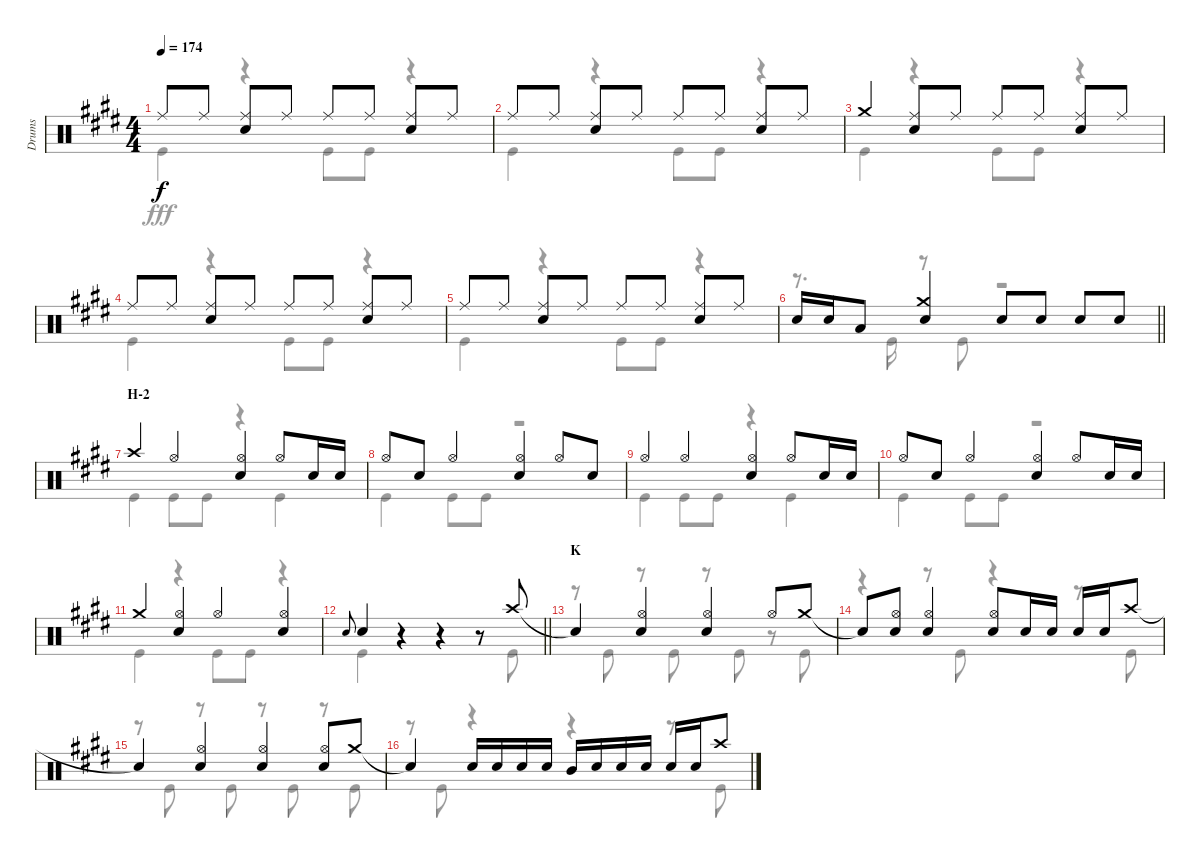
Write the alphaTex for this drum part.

\track ("Drums" "Drums") {instrument percussion}
\staff {score}
\articulation defaults
\voice
\ts (4 4)
\tempo 174
\clef neutral
\ks e "Ride (middle)".8{dy f} "Ride (middle)".8
("Ride (middle)" "Snare (hit) 2").8 "Ride (middle)".8 "Ride (middle)".8 "Ride (middle)".8 ("Ride (middle)" "Snare (hit) 2").8 "Ride (middle)".8 |
"Ride (middle)".8 "Ride (middle)".8 ("Ride (middle)" "Snare (hit) 2").8 "Ride (middle)".8 "Ride (middle)".8 "Ride (middle)".8 ("Ride (middle)" "Snare (hit) 2").8 "Ride (middle)".8 |
"Crash medium (hit)".4 ("Ride (middle)" "Snare (hit) 2").8 "Ride (middle)".8 "Ride (middle)".8 "Ride (middle)".8 ("Ride (middle)" "Snare (hit) 2").8 "Ride (middle)".8 |
"Ride (middle)".8 "Ride (middle)".8 ("Ride (middle)" "Snare (hit) 2").8 "Ride (middle)".8 "Ride (middle)".8 "Ride (middle)".8 ("Ride (middle)" "Snare (hit) 2").8 "Ride (middle)".8 |
"Ride (middle)".8 "Ride (middle)".8 ("Ride (middle)" "Snare (hit) 2").8 "Ride (middle)".8 "Ride (middle)".8 "Ride (middle)".8 ("Ride (middle)" "Snare (hit) 2").8 "Ride (middle)".8 |
\barLineRight lightlight "Snare (hit) 2".16 "Snare (hit) 2".16 "Low Tom (hit)".8
("Crash medium (hit)" "Snare (hit) 2").4 "Snare (hit) 2".8 "Snare (hit) 2".8 "Snare (hit) 2".8 "Snare (hit) 2".8 |
\section ("" "H-2")
"Crash high (hit)".4 "Hi-Hat (open)".4 ("Hi-Hat (open)" "Snare (hit) 2").4 "Hi-Hat (open)".8 "Snare (hit) 2".16 "Snare (hit) 2".16 |
"Hi-Hat (open)".8 "Snare (hit) 2".8 "Hi-Hat (open)".4 ("Hi-Hat (open)" "Snare (hit) 2").4 "Hi-Hat (open)".8 "Snare (hit) 2".8 |
"Hi-Hat (open)".4 "Hi-Hat (open)".4 ("Hi-Hat (open)" "Snare (hit) 2").4 "Hi-Hat (open)".8 "Snare (hit) 2".16 "Snare (hit) 2".16 |
"Hi-Hat (open)".8 "Snare (hit) 2".8 "Hi-Hat (open)".4 ("Hi-Hat (open)" "Snare (hit) 2").4 "Hi-Hat (open)".8 "Snare (hit) 2".16 "Snare (hit) 2".16 |
"Crash medium (hit)".4 ("Hi-Hat (open)" "Snare (hit) 2").4 "Hi-Hat (open)".4 ("Hi-Hat (open)" "Snare (hit) 2").4 |
\barLineRight lightlight "Snare (hit) 2".8{gr onbeat} "Snare (hit) 2".4
r.4 r.4 r.8 "Crash high (hit)".8 |
\section ("" "K")
"Snare (hit)"{t}.4 ("Hi-Hat (open)" "Snare (hit) 2").4 ("Hi-Hat (open)" "Snare (hit) 2").4 "Hi-Hat (open)".8 "Crash medium (hit)".8 |
"Snare (hit)"{t}.8 ("Hi-Hat (open)" "Snare (hit) 2").8 ("Hi-Hat (open)" "Snare (hit) 2").4 ("Hi-Hat (open)" "Snare (hit) 2").8 "Snare (hit) 2".16 "Snare (hit) 2".16 "Snare (hit) 2".16 "Snare (hit) 2".16 "Crash high (hit)".8 |
"Snare (hit)"{t}.4 ("Hi-Hat (open)" "Snare (hit) 2").4 ("Hi-Hat (open)" "Snare (hit) 2").4 ("Hi-Hat (open)" "Snare (hit) 2").8 "Crash medium (hit)".8 |
"Snare (hit)"{t}.4 "Snare (hit) 2".16 "Snare (hit) 2".16 "Snare (hit) 2".16 "Snare (hit) 2".16 "Mid Tom (hit)".16 "Snare (hit) 2".16 "Snare (hit) 2".16 "Snare (hit) 2".16 "Snare (hit) 2".16 "Snare (hit) 2".16 "Crash high (hit)".8
\voice
\clef neutral
\ottava regular
\simile none
\ks e "Kick (hit)".4{dy fff}
r.4 "Kick (hit)".8 "Kick (hit)".8 r.4 |
"Kick (hit)".4 r.4 "Kick (hit)".8 "Kick (hit)".8 r.4 |
"Kick (hit)".4 r.4 "Kick (hit)".8 "Kick (hit)".8 r.4 |
"Kick (hit)".4 r.4 "Kick (hit)".8 "Kick (hit)".8 r.4 |
"Kick (hit)".4 r.4 "Kick (hit)".8 "Kick (hit)".8 r.4 |
\barLineRight lightlight
r.8{d} "Kick (hit)".16 r.8 "Kick (hit)".8 r.2 |
"Kick (hit)".4 "Kick (hit)".8 "Kick (hit)".8 r.4 "Kick (hit)".4 |
"Kick (hit)".4 "Kick (hit)".8 "Kick (hit)".8 r.2 |
"Kick (hit)".4 "Kick (hit)".8 "Kick (hit)".8 r.4 "Kick (hit)".4 |
"Kick (hit)".4 "Kick (hit)".8 "Kick (hit)".8 r.2 |
"Kick (hit)".4 r.4 "Kick (hit)".8 "Kick (hit)".8 r.4 |
\barLineRight lightlight "Kick (hit)".4
r.4 r.4 r.8 "Kick (hit)".8 |
r.8 "Kick (hit)".8 r.8 "Kick (hit)".8 r.8 "Kick (hit)".8 r.8 "Kick (hit)".8 |
r.4 r.8 "Kick (hit)".8 r.4 r.8 "Kick (hit)".8 |
r.8 "Kick (hit)".8 r.8 "Kick (hit)".8 r.8 "Kick (hit)".8 r.8 "Kick (hit)".8 |
r.8 "Kick (hit)".8 r.4 r.4 r.8 "Kick (hit)".8
